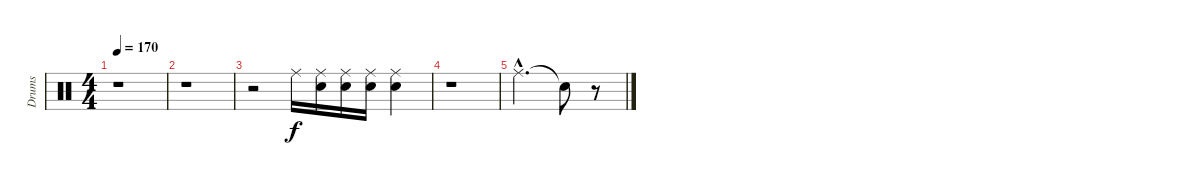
\track ("Drums" "Drums") {instrument percussion}
\staff {score}
\articulation defaults
\ts (4 4)
\tempo 170
\clef neutral
\ks c
r.1{dy f} |
r.1 |
r.2 "Ride (middle)".16 ("Snare (hit)" "Ride (middle)").16 ("Snare (hit)" "Ride (middle)").16 ("Snare (hit)" "Ride (middle)").16 ("Snare (hit)" "Ride (middle)").4 |
r.1 |
"Ride (middle)"{hac}.2{d} "Snare (hit)"{t}.8 r.8
